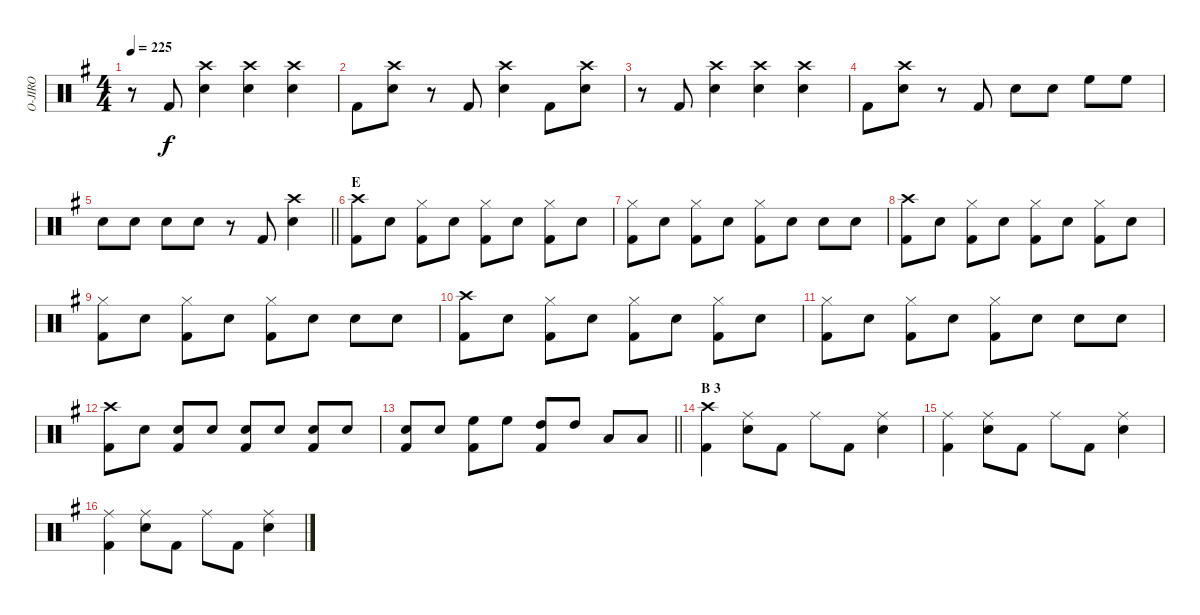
\track ("O-JIRO" "O-JIRO") {instrument percussion}
\staff {score}
\articulation defaults
\ts (4 4)
\tempo 225
\clef neutral
\ks g
r.8{dy f} "Kick (hit) 2".8 ("Crash high (hit)" "Snare (hit) 2").4 ("Crash high (hit)" "Snare (hit) 2").4 ("Crash high (hit)" "Snare (hit) 2").4 |
"Kick (hit) 2".8 ("Crash high (hit)" "Snare (hit) 2").8 r.8 "Kick (hit) 2".8 ("Crash high (hit)" "Snare (hit) 2").4 "Kick (hit) 2".8 ("Crash high (hit)" "Snare (hit) 2").8 |
r.8 "Kick (hit) 2".8 ("Crash high (hit)" "Snare (hit) 2").4 ("Crash high (hit)" "Snare (hit) 2").4 ("Crash high (hit)" "Snare (hit) 2").4 |
"Kick (hit) 2".8 ("Crash high (hit)" "Snare (hit) 2").8 r.8 "Kick (hit) 2".8 "Snare (hit) 2".8 "Snare (hit) 2".8 "High Floor Tom (hit)".8 "High Floor Tom (hit)".8 |
\barLineRight lightlight "Snare (hit) 2".8 "Snare (hit) 2".8 "Snare (hit) 2".8 "Snare (hit) 2".8
r.8 "Kick (hit) 2".8 ("Crash high (hit)" "Snare (hit) 2").4 |
\section ("" "E ")
("Crash high (hit)" "Kick (hit) 2").8 "Snare (hit) 2".8 ("Hi-Hat (closed)" "Kick (hit) 2").8 "Snare (hit) 2".8 ("Hi-Hat (closed)" "Kick (hit) 2").8 "Snare (hit) 2".8 ("Hi-Hat (closed)" "Kick (hit) 2").8 "Snare (hit) 2".8 |
("Hi-Hat (closed)" "Kick (hit) 2").8 "Snare (hit) 2".8 ("Hi-Hat (closed)" "Kick (hit) 2").8 "Snare (hit) 2".8 ("Hi-Hat (closed)" "Kick (hit) 2").8 "Snare (hit) 2".8 "Snare (hit) 2".8 "Snare (hit) 2".8 |
("Crash high (hit)" "Kick (hit) 2").8 "Snare (hit) 2".8 ("Hi-Hat (closed)" "Kick (hit) 2").8 "Snare (hit) 2".8 ("Hi-Hat (closed)" "Kick (hit) 2").8 "Snare (hit) 2".8 ("Hi-Hat (closed)" "Kick (hit) 2").8 "Snare (hit) 2".8 |
("Hi-Hat (closed)" "Kick (hit) 2").8 "Snare (hit) 2".8 ("Hi-Hat (closed)" "Kick (hit) 2").8 "Snare (hit) 2".8 ("Hi-Hat (closed)" "Kick (hit) 2").8 "Snare (hit) 2".8 "Snare (hit) 2".8 "Snare (hit) 2".8 |
("Crash high (hit)" "Kick (hit) 2").8 "Snare (hit) 2".8 ("Hi-Hat (closed)" "Kick (hit) 2").8 "Snare (hit) 2".8 ("Hi-Hat (closed)" "Kick (hit) 2").8 "Snare (hit) 2".8 ("Hi-Hat (closed)" "Kick (hit) 2").8 "Snare (hit) 2".8 |
("Hi-Hat (closed)" "Kick (hit) 2").8 "Snare (hit) 2".8 ("Hi-Hat (closed)" "Kick (hit) 2").8 "Snare (hit) 2".8 ("Hi-Hat (closed)" "Kick (hit) 2").8 "Snare (hit) 2".8 "Snare (hit) 2".8 "Snare (hit) 2".8 |
("Crash high (hit)" "Kick (hit) 2").8 "Snare (hit) 2".8 ("Snare (hit) 2" "Kick (hit) 2").8 "Snare (hit) 2".8 ("Snare (hit) 2" "Kick (hit) 2").8 "Snare (hit) 2".8 ("Snare (hit) 2" "Kick (hit) 2").8 "Snare (hit) 2".8 |
\barLineRight lightlight
("Snare (hit) 2" "Kick (hit) 2").8 "Snare (hit) 2".8 ("High Floor Tom (hit)" "Kick (hit) 2").8 "High Floor Tom (hit)".8 ("High Tom (hit)" "Kick (hit) 2").8 "High Tom (hit)".8 "Low Tom (hit)".8 "Low Tom (hit)".8 |
\section ("" "B 3")
("Crash high (hit)" "Kick (hit) 2").4 ("Ride (middle)" "Snare (hit) 2").8 "Kick (hit) 2".8 "Ride (middle)".8 "Kick (hit) 2".8 ("Ride (middle)" "Snare (hit) 2").4 |
("Ride (middle)" "Kick (hit) 2").4 ("Ride (middle)" "Snare (hit) 2").8 "Kick (hit) 2".8 "Ride (middle)".8 "Kick (hit) 2".8 ("Ride (middle)" "Snare (hit) 2").4 |
("Ride (middle)" "Kick (hit) 2").4 ("Ride (middle)" "Snare (hit) 2").8 "Kick (hit) 2".8 "Ride (middle)".8 "Kick (hit) 2".8 ("Ride (middle)" "Snare (hit) 2").4
